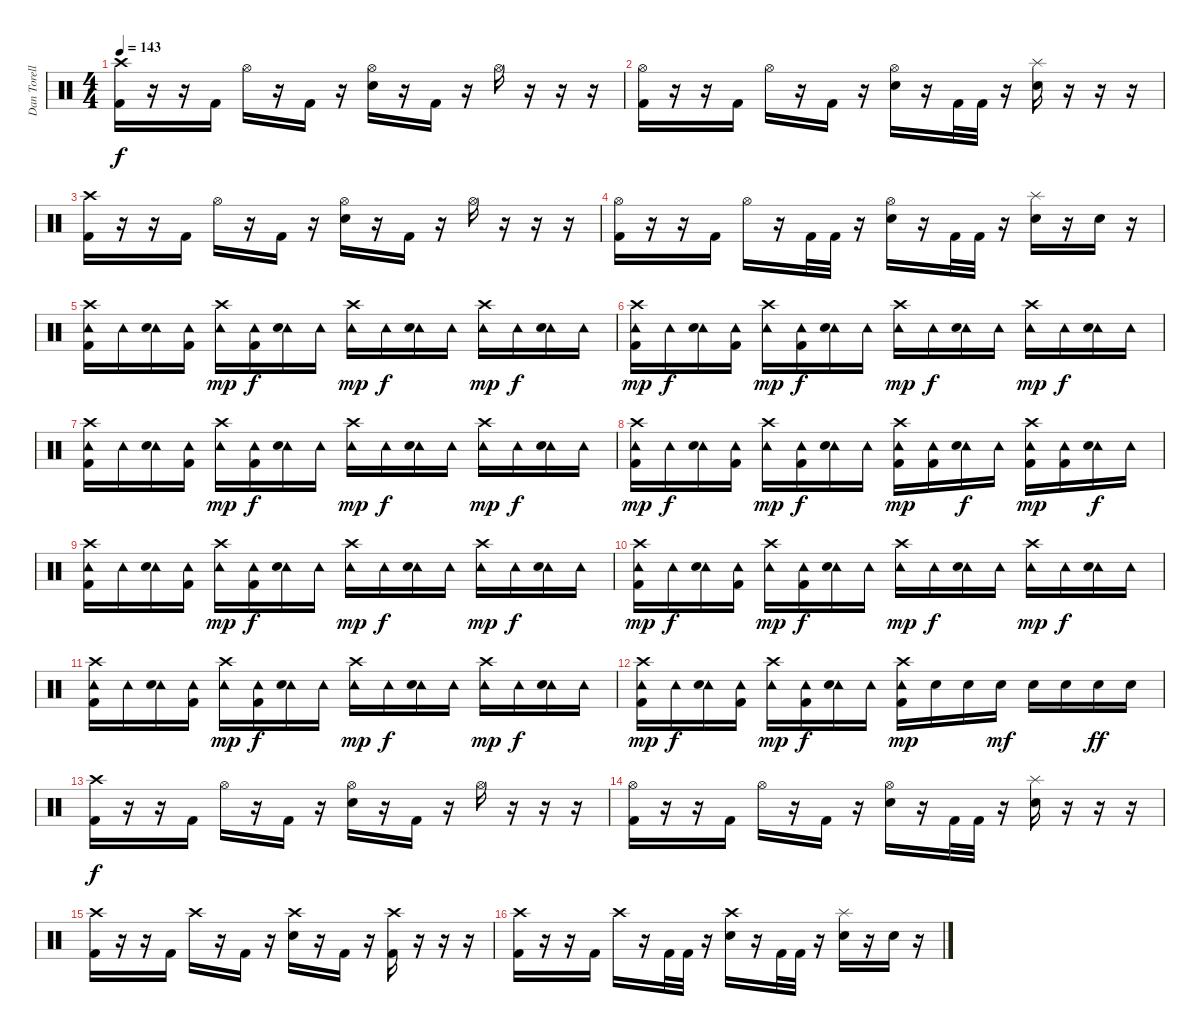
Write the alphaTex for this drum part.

\track ("Dan Torelli" "Dan Torell") {instrument percussion}
\staff {score}
\articulation defaults
\ts (4 4)
\tempo 143
\clef neutral
\ks c
("Crash high (hit)" "Kick (hit) 2").16{dy f} r.16 r.16 "Kick (hit) 2".16 "Hi-Hat (open)".16 r.16 "Kick (hit) 2".16 r.16 ("Hi-Hat (open)" "Snare (hit) 2").16 r.16 "Kick (hit) 2".16 r.16 "Hi-Hat (open)".16 r.16 r.16 r.16 |
("Hi-Hat (open)" "Kick (hit) 2").16 r.16 r.16 "Kick (hit) 2".16 "Hi-Hat (open)".16 r.16 "Kick (hit) 2".16 r.16 ("Hi-Hat (open)" "Snare (hit) 2").16 r.16 "Kick (hit) 2".32 "Kick (hit) 2".32 r.16 ("Splash (hit)" "Snare (hit) 2").16 r.16 r.16 r.16 |
("Crash high (hit)" "Kick (hit) 2").16 r.16 r.16 "Kick (hit) 2".16 "Hi-Hat (open)".16 r.16 "Kick (hit) 2".16 r.16 ("Hi-Hat (open)" "Snare (hit) 2").16 r.16 "Kick (hit) 2".16 r.16 "Hi-Hat (open)".16 r.16 r.16 r.16 |
("Hi-Hat (open)" "Kick (hit) 2").16 r.16 r.16 "Kick (hit) 2".16 "Hi-Hat (open)".16 r.16 "Kick (hit) 2".32 "Kick (hit) 2".32 r.16 ("Hi-Hat (open)" "Snare (hit) 2").16 r.16 "Kick (hit) 2".32 "Kick (hit) 2".32 r.16 ("Splash (hit)" "Snare (hit) 2").16 r.16 "Snare (hit) 2".16 r.16 |
("Crash high (hit)" "Tambourine (hit)" "Kick (hit) 2").16 "Tambourine (hit)".16 ("Tambourine (hit)" "Snare (hit) 2").16 ("Tambourine (hit)" "Kick (hit) 2").16 ("Crash high (hit)" "Tambourine (hit)").16{dy mp} ("Tambourine (hit)" "Kick (hit) 2").16{dy f} ("Tambourine (hit)" "Snare (hit) 2").16 "Tambourine (hit)".16 ("Crash high (hit)" "Tambourine (hit)").16{dy mp} "Tambourine (hit)".16{dy f} ("Tambourine (hit)" "Snare (hit) 2").16 "Tambourine (hit)".16 ("Crash high (hit)" "Tambourine (hit)").16{dy mp} "Tambourine (hit)".16{dy f} ("Tambourine (hit)" "Snare (hit) 2").16 "Tambourine (hit)".16 |
("Crash high (hit)" "Tambourine (hit)" "Kick (hit) 2").16{dy mp} "Tambourine (hit)".16{dy f} ("Tambourine (hit)" "Snare (hit) 2").16 ("Tambourine (hit)" "Kick (hit) 2").16 ("Crash high (hit)" "Tambourine (hit)").16{dy mp} ("Tambourine (hit)" "Kick (hit) 2").16{dy f} ("Tambourine (hit)" "Snare (hit) 2").16 "Tambourine (hit)".16 ("Crash high (hit)" "Tambourine (hit)").16{dy mp} "Tambourine (hit)".16{dy f} ("Tambourine (hit)" "Snare (hit) 2").16 "Tambourine (hit)".16 ("Crash high (hit)" "Tambourine (hit)").16{dy mp} "Tambourine (hit)".16{dy f} ("Tambourine (hit)" "Snare (hit) 2").16 "Tambourine (hit)".16 |
("Crash high (hit)" "Tambourine (hit)" "Kick (hit) 2").16 "Tambourine (hit)".16 ("Tambourine (hit)" "Snare (hit) 2").16 ("Tambourine (hit)" "Kick (hit) 2").16 ("Crash high (hit)" "Tambourine (hit)").16{dy mp} ("Tambourine (hit)" "Kick (hit) 2").16{dy f} ("Tambourine (hit)" "Snare (hit) 2").16 "Tambourine (hit)".16 ("Crash high (hit)" "Tambourine (hit)").16{dy mp} "Tambourine (hit)".16{dy f} ("Tambourine (hit)" "Snare (hit) 2").16 "Tambourine (hit)".16 ("Crash high (hit)" "Tambourine (hit)").16{dy mp} "Tambourine (hit)".16{dy f} ("Tambourine (hit)" "Snare (hit) 2").16 "Tambourine (hit)".16 |
("Crash high (hit)" "Tambourine (hit)" "Kick (hit) 2").16{dy mp} "Tambourine (hit)".16{dy f} ("Tambourine (hit)" "Snare (hit) 2").16 ("Tambourine (hit)" "Kick (hit) 2").16 ("Crash high (hit)" "Tambourine (hit)").16{dy mp} ("Tambourine (hit)" "Kick (hit) 2").16{dy f} ("Tambourine (hit)" "Snare (hit) 2").16 "Tambourine (hit)".16 ("Crash high (hit)" "Tambourine (hit)" "Kick (hit) 2").16{dy mp} ("Tambourine (hit)" "Kick (hit) 2").16 ("Tambourine (hit)" "Snare (hit) 2").16{dy f} "Tambourine (hit)".16 ("Crash high (hit)" "Tambourine (hit)" "Kick (hit) 2").16{dy mp} ("Tambourine (hit)" "Kick (hit) 2").16 ("Tambourine (hit)" "Snare (hit) 2").16{dy f} "Tambourine (hit)".16 |
("Crash high (hit)" "Tambourine (hit)" "Kick (hit) 2").16 "Tambourine (hit)".16 ("Tambourine (hit)" "Snare (hit) 2").16 ("Tambourine (hit)" "Kick (hit) 2").16 ("Crash high (hit)" "Tambourine (hit)").16{dy mp} ("Tambourine (hit)" "Kick (hit) 2").16{dy f} ("Tambourine (hit)" "Snare (hit) 2").16 "Tambourine (hit)".16 ("Crash high (hit)" "Tambourine (hit)").16{dy mp} "Tambourine (hit)".16{dy f} ("Tambourine (hit)" "Snare (hit) 2").16 "Tambourine (hit)".16 ("Crash high (hit)" "Tambourine (hit)").16{dy mp} "Tambourine (hit)".16{dy f} ("Tambourine (hit)" "Snare (hit) 2").16 "Tambourine (hit)".16 |
("Crash high (hit)" "Tambourine (hit)" "Kick (hit) 2").16{dy mp} "Tambourine (hit)".16{dy f} ("Tambourine (hit)" "Snare (hit) 2").16 ("Tambourine (hit)" "Kick (hit) 2").16 ("Crash high (hit)" "Tambourine (hit)").16{dy mp} ("Tambourine (hit)" "Kick (hit) 2").16{dy f} ("Tambourine (hit)" "Snare (hit) 2").16 "Tambourine (hit)".16 ("Crash high (hit)" "Tambourine (hit)").16{dy mp} "Tambourine (hit)".16{dy f} ("Tambourine (hit)" "Snare (hit) 2").16 "Tambourine (hit)".16 ("Crash high (hit)" "Tambourine (hit)").16{dy mp} "Tambourine (hit)".16{dy f} ("Tambourine (hit)" "Snare (hit) 2").16 "Tambourine (hit)".16 |
("Crash high (hit)" "Tambourine (hit)" "Kick (hit) 2").16 "Tambourine (hit)".16 ("Tambourine (hit)" "Snare (hit) 2").16 ("Tambourine (hit)" "Kick (hit) 2").16 ("Crash high (hit)" "Tambourine (hit)").16{dy mp} ("Tambourine (hit)" "Kick (hit) 2").16{dy f} ("Tambourine (hit)" "Snare (hit) 2").16 "Tambourine (hit)".16 ("Crash high (hit)" "Tambourine (hit)").16{dy mp} "Tambourine (hit)".16{dy f} ("Tambourine (hit)" "Snare (hit) 2").16 "Tambourine (hit)".16 ("Crash high (hit)" "Tambourine (hit)").16{dy mp} "Tambourine (hit)".16{dy f} ("Tambourine (hit)" "Snare (hit) 2").16 "Tambourine (hit)".16 |
("Crash high (hit)" "Tambourine (hit)" "Kick (hit) 2").16{dy mp} "Tambourine (hit)".16{dy f} ("Tambourine (hit)" "Snare (hit) 2").16 ("Tambourine (hit)" "Kick (hit) 2").16 ("Crash high (hit)" "Tambourine (hit)").16{dy mp} ("Tambourine (hit)" "Kick (hit) 2").16{dy f} ("Tambourine (hit)" "Snare (hit) 2").16 "Tambourine (hit)".16 ("Crash high (hit)" "Tambourine (hit)" "Kick (hit) 2").16{dy mp} "Snare (hit) 2".16 "Snare (hit) 2".16 "Snare (hit) 2".16{dy mf} "Snare (hit) 2".16 "Snare (hit) 2".16 "Snare (hit) 2".16{dy ff} "Snare (hit) 2".16 |
("Crash high (hit)" "Kick (hit) 2").16{dy f} r.16 r.16 "Kick (hit) 2".16 "Hi-Hat (open)".16 r.16 "Kick (hit) 2".16 r.16 ("Hi-Hat (open)" "Snare (hit) 2").16 r.16 "Kick (hit) 2".16 r.16 "Hi-Hat (open)".16 r.16 r.16 r.16 |
("Hi-Hat (open)" "Kick (hit) 2").16 r.16 r.16 "Kick (hit) 2".16 "Hi-Hat (open)".16 r.16 "Kick (hit) 2".16 r.16 ("Hi-Hat (open)" "Snare (hit) 2").16 r.16 "Kick (hit) 2".32 "Kick (hit) 2".32 r.16 ("Splash (hit)" "Snare (hit) 2").16 r.16 r.16 r.16 |
("Crash high (hit)" "Kick (hit) 2").16 r.16 r.16 "Kick (hit) 2".16 "Crash high (hit)".16 r.16 "Kick (hit) 2".16 r.16 ("Crash high (hit)" "Snare (hit) 2").16 r.16 "Kick (hit) 2".16 r.16 ("Crash high (hit)" "Kick (hit) 2").16 r.16 r.16 r.16 |
("Crash high (hit)" "Kick (hit) 2").16 r.16 r.16 "Kick (hit) 2".16 "Crash high (hit)".16 r.16 "Kick (hit) 2".32 "Kick (hit) 2".32 r.16 ("Crash high (hit)" "Snare (hit) 2").16 r.16 "Kick (hit) 2".32 "Kick (hit) 2".32 r.16 ("Splash (hit)" "Snare (hit) 2").16 r.16 "Snare (hit) 2".16 r.16
